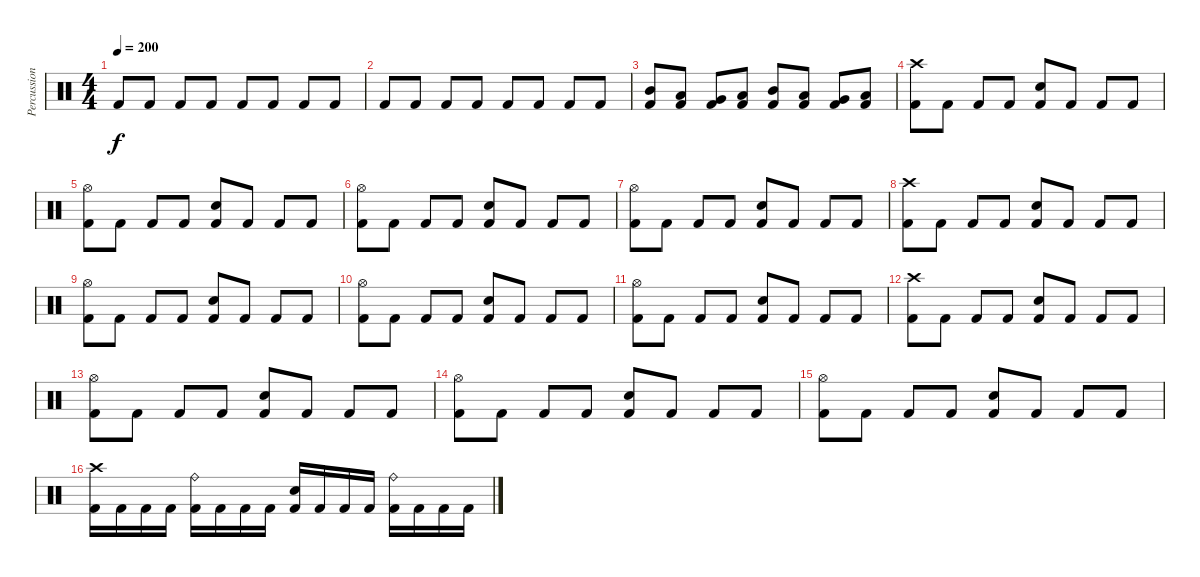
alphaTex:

\track ("Percussion" "Percussion") {instrument percussion}
\staff {score}
\articulation defaults
\ts (4 4)
\tempo 200
\clef neutral
\ks c "Kick (hit) 2".8{dy f} "Kick (hit) 2".8 "Kick (hit) 2".8 "Kick (hit) 2".8 "Kick (hit) 2".8 "Kick (hit) 2".8 "Kick (hit) 2".8 "Kick (hit) 2".8
|
"Kick (hit) 2".8 "Kick (hit) 2".8 "Kick (hit) 2".8 "Kick (hit) 2".8 "Kick (hit) 2".8 "Kick (hit) 2".8 "Kick (hit) 2".8 "Kick (hit) 2".8 |
("Mid Tom (hit)" "Kick (hit) 2").8 ("Low Tom (hit)" "Kick (hit) 2").8 ("Very Low Tom (hit)" "Kick (hit) 2").8 ("Low Floor Tom (hit)" "Kick (hit) 2").8 ("Mid Tom (hit)" "Kick (hit) 2").8 ("Low Tom (hit)" "Kick (hit) 2").8 ("Very Low Tom (hit)" "Kick (hit) 2").8 ("Low Floor Tom (hit)" "Kick (hit) 2").8 |
("Crash high (hit)" "Kick (hit) 2").8 "Kick (hit) 2".8 "Kick (hit) 2".8 "Kick (hit) 2".8 ("Electric Snare (hit)" "Kick (hit) 2").8 "Kick (hit) 2".8 "Kick (hit) 2".8 "Kick (hit) 2".8 |
("Hi-Hat (open)" "Kick (hit) 2").8 "Kick (hit) 2".8 "Kick (hit) 2".8 "Kick (hit) 2".8 ("Electric Snare (hit)" "Kick (hit) 2").8 "Kick (hit) 2".8 "Kick (hit) 2".8 "Kick (hit) 2".8 |
("Hi-Hat (open)" "Kick (hit) 2").8 "Kick (hit) 2".8 "Kick (hit) 2".8 "Kick (hit) 2".8 ("Electric Snare (hit)" "Kick (hit) 2").8 "Kick (hit) 2".8 "Kick (hit) 2".8 "Kick (hit) 2".8 |
("Hi-Hat (open)" "Kick (hit) 2").8 "Kick (hit) 2".8 "Kick (hit) 2".8 "Kick (hit) 2".8 ("Electric Snare (hit)" "Kick (hit) 2").8 "Kick (hit) 2".8 "Kick (hit) 2".8 "Kick (hit) 2".8 |
("Crash high (hit)" "Kick (hit) 2").8 "Kick (hit) 2".8 "Kick (hit) 2".8 "Kick (hit) 2".8 ("Electric Snare (hit)" "Kick (hit) 2").8 "Kick (hit) 2".8 "Kick (hit) 2".8 "Kick (hit) 2".8 |
("Hi-Hat (open)" "Kick (hit) 2").8 "Kick (hit) 2".8 "Kick (hit) 2".8 "Kick (hit) 2".8 ("Electric Snare (hit)" "Kick (hit) 2").8 "Kick (hit) 2".8 "Kick (hit) 2".8 "Kick (hit) 2".8 |
("Hi-Hat (open)" "Kick (hit) 2").8 "Kick (hit) 2".8 "Kick (hit) 2".8 "Kick (hit) 2".8 ("Electric Snare (hit)" "Kick (hit) 2").8 "Kick (hit) 2".8 "Kick (hit) 2".8 "Kick (hit) 2".8 |
("Hi-Hat (open)" "Kick (hit) 2").8 "Kick (hit) 2".8 "Kick (hit) 2".8 "Kick (hit) 2".8 ("Electric Snare (hit)" "Kick (hit) 2").8 "Kick (hit) 2".8 "Kick (hit) 2".8 "Kick (hit) 2".8 |
("Crash high (hit)" "Kick (hit) 2").8 "Kick (hit) 2".8 "Kick (hit) 2".8 "Kick (hit) 2".8 ("Electric Snare (hit)" "Kick (hit) 2").8 "Kick (hit) 2".8 "Kick (hit) 2".8 "Kick (hit) 2".8 |
("Hi-Hat (open)" "Kick (hit) 2").8 "Kick (hit) 2".8 "Kick (hit) 2".8 "Kick (hit) 2".8 ("Electric Snare (hit)" "Kick (hit) 2").8 "Kick (hit) 2".8 "Kick (hit) 2".8 "Kick (hit) 2".8 |
("Hi-Hat (open)" "Kick (hit) 2").8 "Kick (hit) 2".8 "Kick (hit) 2".8 "Kick (hit) 2".8 ("Electric Snare (hit)" "Kick (hit) 2").8 "Kick (hit) 2".8 "Kick (hit) 2".8 "Kick (hit) 2".8 |
("Hi-Hat (open)" "Kick (hit) 2").8 "Kick (hit) 2".8 "Kick (hit) 2".8 "Kick (hit) 2".8 ("Electric Snare (hit)" "Kick (hit) 2").8 "Kick (hit) 2".8 "Kick (hit) 2".8 "Kick (hit) 2".8 |
("Crash high (hit)" "Kick (hit) 2").16 "Kick (hit) 2".16 "Kick (hit) 2".16 "Kick (hit) 2".16 ("Ride (bell)" "Kick (hit) 2").16 "Kick (hit) 2".16 "Kick (hit) 2".16 "Kick (hit) 2".16 ("Electric Snare (hit)" "Kick (hit) 2").16 "Kick (hit) 2".16 "Kick (hit) 2".16 "Kick (hit) 2".16 ("Ride (bell)" "Kick (hit) 2").16 "Kick (hit) 2".16 "Kick (hit) 2".16 "Kick (hit) 2".16
